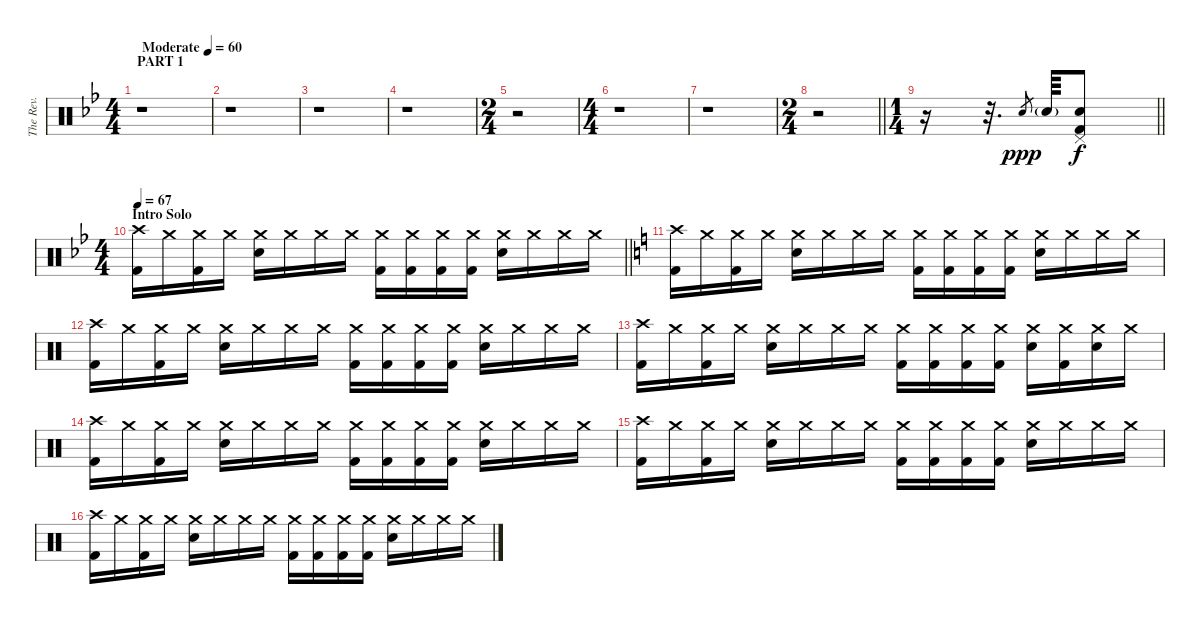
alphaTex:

\track ("The Rev." "The Rev.") {instrument percussion}
\staff {score}
\articulation defaults
\ts (4 4)
\section ("" "PART 1")
\tempo (60 "Moderate")
\clef neutral
\ks bb
r.1{dy ppp} |
r.1 |
r.1 |
r.1 |
\ts (2 4)
r.2 |
\ts (4 4)
r.1 |
r.1 |
\ts (2 4)
\barLineRight lightlight
r.2 |
\ts (1 4)
\barLineRight lightlight
r.16 r.32{d} "Electric Snare (hit)".8{gr} "Electric Snare (hit)"{g}.64 ("Pedal Hi-Hat (hit)" "Electric Snare (hit)" "Kick (hit) 2").8{dy f} |
\ts (4 4)
\section ("" "Intro Solo")
\tempo 67
\barLineRight lightlight
("Crash high (hit)" "Kick (hit) 2").16 "Crash medium (hit)".16 ("Crash medium (hit)" "Kick (hit) 2").16 "Crash medium (hit)".16 ("Crash medium (hit)" "Electric Snare (hit)").16 "Crash medium (hit)".16 "Crash medium (hit)".16 "Crash medium (hit)".16 ("Crash medium (hit)" "Kick (hit) 2").16 ("Crash medium (hit)" "Kick (hit) 2").16 ("Crash medium (hit)" "Kick (hit) 2").16 ("Crash medium (hit)" "Kick (hit) 2").16 ("Crash medium (hit)" "Electric Snare (hit)").16 "Crash medium (hit)".16 "Crash medium (hit)".16 "Crash medium (hit)".16 |
\ks c
("Crash high (hit)" "Kick (hit) 2").16 "Crash medium (hit)".16 ("Crash medium (hit)" "Kick (hit) 2").16 "Crash medium (hit)".16 ("Crash medium (hit)" "Electric Snare (hit)").16 "Crash medium (hit)".16 "Crash medium (hit)".16 "Crash medium (hit)".16 ("Crash medium (hit)" "Kick (hit) 2").16 ("Crash medium (hit)" "Kick (hit) 2").16 ("Crash medium (hit)" "Kick (hit) 2").16 ("Crash medium (hit)" "Kick (hit) 2").16 ("Crash medium (hit)" "Electric Snare (hit)").16 "Crash medium (hit)".16 "Crash medium (hit)".16 "Crash medium (hit)".16 |
("Crash high (hit)" "Kick (hit) 2").16 "Crash medium (hit)".16 ("Crash medium (hit)" "Kick (hit) 2").16 "Crash medium (hit)".16 ("Crash medium (hit)" "Electric Snare (hit)").16 "Crash medium (hit)".16 "Crash medium (hit)".16 "Crash medium (hit)".16 ("Crash medium (hit)" "Kick (hit) 2").16 ("Crash medium (hit)" "Kick (hit) 2").16 ("Crash medium (hit)" "Kick (hit) 2").16 ("Crash medium (hit)" "Kick (hit) 2").16 ("Crash medium (hit)" "Electric Snare (hit)").16 "Crash medium (hit)".16 "Crash medium (hit)".16 "Crash medium (hit)".16 |
("Crash high (hit)" "Kick (hit) 2").16 "Crash medium (hit)".16 ("Crash medium (hit)" "Kick (hit) 2").16 "Crash medium (hit)".16 ("Crash medium (hit)" "Electric Snare (hit)").16 "Crash medium (hit)".16 "Crash medium (hit)".16 "Crash medium (hit)".16 ("Crash medium (hit)" "Kick (hit) 2").16 ("Crash medium (hit)" "Kick (hit) 2").16 ("Crash medium (hit)" "Kick (hit) 2").16 ("Crash medium (hit)" "Kick (hit) 2").16 ("Crash medium (hit)" "Electric Snare (hit)").16 ("Crash medium (hit)" "Kick (hit) 2").16 ("Crash medium (hit)" "Electric Snare (hit)").16 "Crash medium (hit)".16 |
("Crash high (hit)" "Kick (hit) 2").16 "Crash medium (hit)".16 ("Crash medium (hit)" "Kick (hit) 2").16 "Crash medium (hit)".16 ("Crash medium (hit)" "Electric Snare (hit)").16 "Crash medium (hit)".16 "Crash medium (hit)".16 "Crash medium (hit)".16 ("Crash medium (hit)" "Kick (hit) 2").16 ("Crash medium (hit)" "Kick (hit) 2").16 ("Crash medium (hit)" "Kick (hit) 2").16 ("Crash medium (hit)" "Kick (hit) 2").16 ("Crash medium (hit)" "Electric Snare (hit)").16 "Crash medium (hit)".16 "Crash medium (hit)".16 "Crash medium (hit)".16 |
("Crash high (hit)" "Kick (hit) 2").16 "Crash medium (hit)".16 ("Crash medium (hit)" "Kick (hit) 2").16 "Crash medium (hit)".16 ("Crash medium (hit)" "Electric Snare (hit)").16 "Crash medium (hit)".16 "Crash medium (hit)".16 "Crash medium (hit)".16 ("Crash medium (hit)" "Kick (hit) 2").16 ("Crash medium (hit)" "Kick (hit) 2").16 ("Crash medium (hit)" "Kick (hit) 2").16 ("Crash medium (hit)" "Kick (hit) 2").16 ("Crash medium (hit)" "Electric Snare (hit)").16 "Crash medium (hit)".16 "Crash medium (hit)".16 "Crash medium (hit)".16 |
("Crash high (hit)" "Kick (hit) 2").16 "Crash medium (hit)".16 ("Crash medium (hit)" "Kick (hit) 2").16 "Crash medium (hit)".16 ("Crash medium (hit)" "Electric Snare (hit)").16 "Crash medium (hit)".16 "Crash medium (hit)".16 "Crash medium (hit)".16 ("Crash medium (hit)" "Kick (hit) 2").16 ("Crash medium (hit)" "Kick (hit) 2").16 ("Crash medium (hit)" "Kick (hit) 2").16 ("Crash medium (hit)" "Kick (hit) 2").16 ("Crash medium (hit)" "Electric Snare (hit)").16 "Crash medium (hit)".16 "Crash medium (hit)".16 "Crash medium (hit)".16
